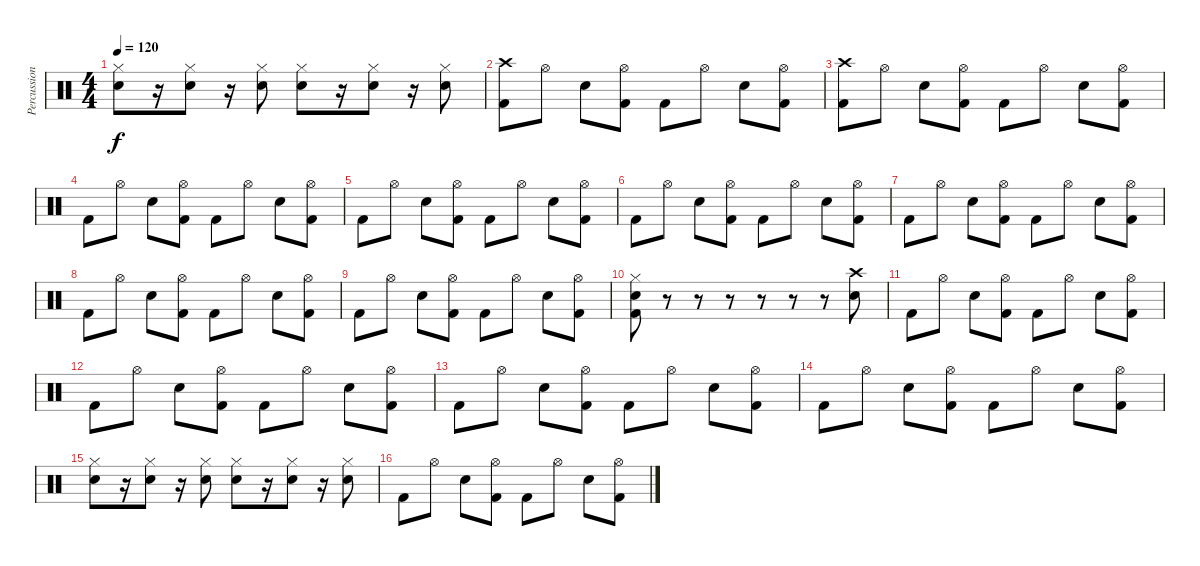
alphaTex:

\track ("Percussions" "Percussion") {instrument percussion}
\staff {score}
\articulation defaults
\ts (4 4)
\tempo 120
\clef neutral
\ks c
("Hi-Hat (closed)" "Electric Snare (hit)").8{dy f} r.16 ("Hi-Hat (closed)" "Electric Snare (hit)").8 r.16 ("Hi-Hat (closed)" "Electric Snare (hit)").8 ("Hi-Hat (closed)" "Electric Snare (hit)").8 r.16 ("Hi-Hat (closed)" "Electric Snare (hit)").8 r.16 ("Hi-Hat (closed)" "Electric Snare (hit)").8 |
("Crash high (hit)" "Kick (hit) 2").8 "Hi-Hat (open)".8 "Electric Snare (hit)".8 ("Kick (hit) 2" "Hi-Hat (open)").8 "Kick (hit) 2".8 "Hi-Hat (open)".8 "Electric Snare (hit)".8 ("Hi-Hat (open)" "Kick (hit) 2").8 |
("Crash high (hit)" "Kick (hit) 2").8 "Hi-Hat (open)".8 "Electric Snare (hit)".8 ("Kick (hit) 2" "Hi-Hat (open)").8 "Kick (hit) 2".8 "Hi-Hat (open)".8 "Electric Snare (hit)".8 ("Hi-Hat (open)" "Kick (hit) 2").8 |
"Kick (hit) 2".8 "Hi-Hat (open)".8 "Electric Snare (hit)".8 ("Kick (hit) 2" "Hi-Hat (open)").8 "Kick (hit) 2".8 "Hi-Hat (open)".8 "Electric Snare (hit)".8 ("Hi-Hat (open)" "Kick (hit) 2").8 |
"Kick (hit) 2".8 "Hi-Hat (open)".8 "Electric Snare (hit)".8 ("Kick (hit) 2" "Hi-Hat (open)").8 "Kick (hit) 2".8 "Hi-Hat (open)".8 "Electric Snare (hit)".8 ("Hi-Hat (open)" "Kick (hit) 2").8 |
"Kick (hit) 2".8 "Hi-Hat (open)".8 "Electric Snare (hit)".8 ("Kick (hit) 2" "Hi-Hat (open)").8 "Kick (hit) 2".8 "Hi-Hat (open)".8 "Electric Snare (hit)".8 ("Hi-Hat (open)" "Kick (hit) 2").8 |
"Kick (hit) 2".8 "Hi-Hat (open)".8 "Electric Snare (hit)".8 ("Kick (hit) 2" "Hi-Hat (open)").8 "Kick (hit) 2".8 "Hi-Hat (open)".8 "Electric Snare (hit)".8 ("Hi-Hat (open)" "Kick (hit) 2").8 |
"Kick (hit) 2".8 "Hi-Hat (open)".8 "Electric Snare (hit)".8 ("Kick (hit) 2" "Hi-Hat (open)").8 "Kick (hit) 2".8 "Hi-Hat (open)".8 "Electric Snare (hit)".8 ("Hi-Hat (open)" "Kick (hit) 2").8 |
"Kick (hit) 2".8 "Hi-Hat (open)".8 "Electric Snare (hit)".8 ("Kick (hit) 2" "Hi-Hat (open)").8 "Kick (hit) 2".8 "Hi-Hat (open)".8 "Electric Snare (hit)".8 ("Hi-Hat (open)" "Kick (hit) 2").8 |
("Hi-Hat (closed)" "Electric Snare (hit)" "Kick (hit) 2").8 r.8 r.8 r.8 r.8 r.8 r.8 ("Crash high (hit)" "Electric Snare (hit)").8 |
"Kick (hit) 2".8 "Hi-Hat (open)".8 "Electric Snare (hit)".8 ("Kick (hit) 2" "Hi-Hat (open)").8 "Kick (hit) 2".8 "Hi-Hat (open)".8 "Electric Snare (hit)".8 ("Hi-Hat (open)" "Kick (hit) 2").8 |
"Kick (hit) 2".8 "Hi-Hat (open)".8 "Electric Snare (hit)".8 ("Kick (hit) 2" "Hi-Hat (open)").8 "Kick (hit) 2".8 "Hi-Hat (open)".8 "Electric Snare (hit)".8 ("Hi-Hat (open)" "Kick (hit) 2").8 |
"Kick (hit) 2".8 "Hi-Hat (open)".8 "Electric Snare (hit)".8 ("Kick (hit) 2" "Hi-Hat (open)").8 "Kick (hit) 2".8 "Hi-Hat (open)".8 "Electric Snare (hit)".8 ("Hi-Hat (open)" "Kick (hit) 2").8 |
"Kick (hit) 2".8 "Hi-Hat (open)".8 "Electric Snare (hit)".8 ("Kick (hit) 2" "Hi-Hat (open)").8 "Kick (hit) 2".8 "Hi-Hat (open)".8 "Electric Snare (hit)".8 ("Hi-Hat (open)" "Kick (hit) 2").8 |
("Hi-Hat (closed)" "Electric Snare (hit)").8 r.16 ("Hi-Hat (closed)" "Electric Snare (hit)").8 r.16 ("Hi-Hat (closed)" "Electric Snare (hit)").8 ("Hi-Hat (closed)" "Electric Snare (hit)").8 r.16 ("Hi-Hat (closed)" "Electric Snare (hit)").8 r.16 ("Hi-Hat (closed)" "Electric Snare (hit)").8 |
"Kick (hit) 2".8 "Hi-Hat (open)".8 "Electric Snare (hit)".8 ("Kick (hit) 2" "Hi-Hat (open)").8 "Kick (hit) 2".8 "Hi-Hat (open)".8 "Electric Snare (hit)".8 ("Hi-Hat (open)" "Kick (hit) 2").8
